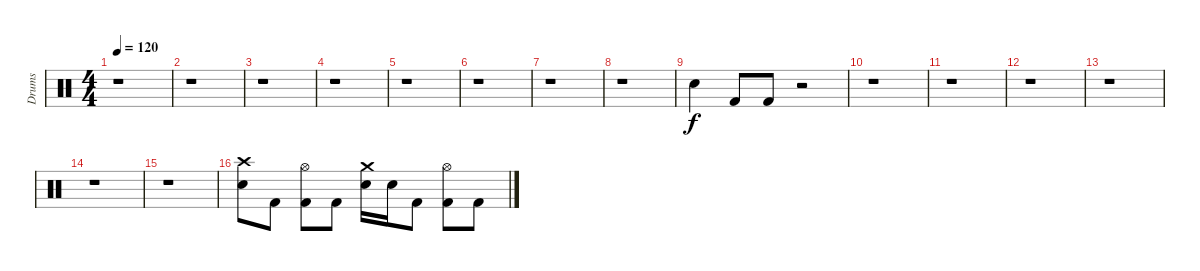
\track ("Drums" "Drums") {instrument percussion}
\staff {score}
\articulation defaults
\ts (4 4)
\tempo 120
\clef neutral
\ks c
r.1{dy f} |
r.1 |
r.1 |
r.1 |
r.1 |
r.1 |
r.1 |
r.1 |
"Electric Snare (hit)".4 "Kick (hit) 2".8 "Kick (hit) 2".8 r.2 |
r.1 |
r.1 |
r.1 |
r.1 |
r.1 |
r.1 |
("Electric Snare (hit)" "Crash high (hit)").8 "Kick (hit) 2".8 ("Hi-Hat (open)" "Kick (hit) 2").8 "Kick (hit) 2".8 ("Crash medium (hit)" "Electric Snare (hit)").16 "Electric Snare (hit)".16 "Kick (hit) 2".8 ("Hi-Hat (open)" "Kick (hit) 2").8 "Kick (hit) 2".8
